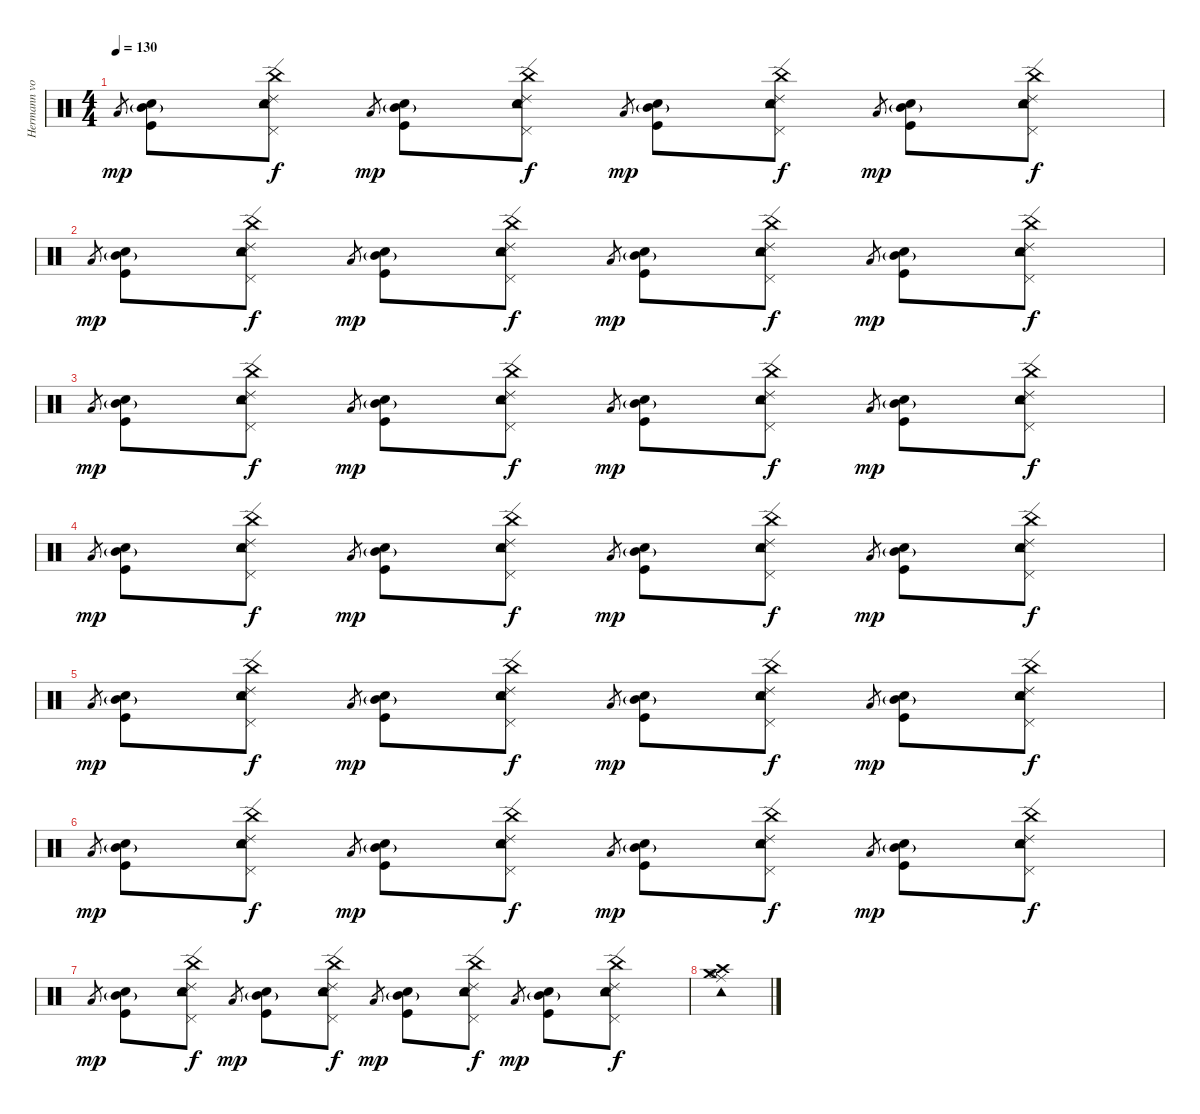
\track ("Hermann von Hinten" "Hermann vo") {instrument percussion}
\staff {score}
\articulation defaults
\ts (4 4)
\tempo 130
\clef neutral
\ks c "Low Tom (hit)".8{gr dy mp}
("Mid Tom (hit)"{g} "Kick (hit)" "Snare (hit) 2").8 ("Tambourine (hit)" "Pedal Hi-Hat (hit)" "China (hit)" "Ride (edge) 2" "Electric Snare (hit)").8{dy f} "Low Tom (hit)".8{gr dy mp} ("Mid Tom (hit)"{g} "Kick (hit)" "Snare (hit) 2").8 ("Tambourine (hit)" "Pedal Hi-Hat (hit)" "China (hit)" "Ride (edge) 2" "Electric Snare (hit)").8{dy f} "Low Tom (hit)".8{gr dy mp} ("Mid Tom (hit)"{g} "Kick (hit)" "Snare (hit) 2").8 ("Tambourine (hit)" "Pedal Hi-Hat (hit)" "China (hit)" "Ride (edge) 2" "Electric Snare (hit)").8{dy f} "Low Tom (hit)".8{gr dy mp} ("Mid Tom (hit)"{g} "Kick (hit)" "Snare (hit) 2").8 ("Tambourine (hit)" "Pedal Hi-Hat (hit)" "China (hit)" "Ride (edge) 2" "Electric Snare (hit)").8{dy f} |
"Low Tom (hit)".8{gr dy mp} ("Mid Tom (hit)"{g} "Kick (hit)" "Snare (hit) 2").8 ("Tambourine (hit)" "Pedal Hi-Hat (hit)" "China (hit)" "Ride (edge) 2" "Electric Snare (hit)").8{dy f} "Low Tom (hit)".8{gr dy mp} ("Mid Tom (hit)"{g} "Kick (hit)" "Snare (hit) 2").8 ("Tambourine (hit)" "Pedal Hi-Hat (hit)" "China (hit)" "Ride (edge) 2" "Electric Snare (hit)").8{dy f} "Low Tom (hit)".8{gr dy mp} ("Mid Tom (hit)"{g} "Kick (hit)" "Snare (hit) 2").8 ("Tambourine (hit)" "Pedal Hi-Hat (hit)" "China (hit)" "Ride (edge) 2" "Electric Snare (hit)").8{dy f} "Low Tom (hit)".8{gr dy mp} ("Mid Tom (hit)"{g} "Kick (hit)" "Snare (hit) 2").8 ("Tambourine (hit)" "Pedal Hi-Hat (hit)" "China (hit)" "Ride (edge) 2" "Electric Snare (hit)").8{dy f} |
"Low Tom (hit)".8{gr dy mp} ("Mid Tom (hit)"{g} "Kick (hit)" "Snare (hit) 2").8 ("Tambourine (hit)" "Pedal Hi-Hat (hit)" "China (hit)" "Ride (edge) 2" "Electric Snare (hit)").8{dy f} "Low Tom (hit)".8{gr dy mp} ("Mid Tom (hit)"{g} "Kick (hit)" "Snare (hit) 2").8 ("Tambourine (hit)" "Pedal Hi-Hat (hit)" "China (hit)" "Ride (edge) 2" "Electric Snare (hit)").8{dy f} "Low Tom (hit)".8{gr dy mp} ("Mid Tom (hit)"{g} "Kick (hit)" "Snare (hit) 2").8 ("Tambourine (hit)" "Pedal Hi-Hat (hit)" "China (hit)" "Ride (edge) 2" "Electric Snare (hit)").8{dy f} "Low Tom (hit)".8{gr dy mp} ("Mid Tom (hit)"{g} "Kick (hit)" "Snare (hit) 2").8 ("Tambourine (hit)" "Pedal Hi-Hat (hit)" "China (hit)" "Ride (edge) 2" "Electric Snare (hit)").8{dy f} |
"Low Tom (hit)".8{gr dy mp} ("Mid Tom (hit)"{g} "Kick (hit)" "Snare (hit) 2").8 ("Tambourine (hit)" "Pedal Hi-Hat (hit)" "China (hit)" "Ride (edge) 2" "Electric Snare (hit)").8{dy f} "Low Tom (hit)".8{gr dy mp} ("Mid Tom (hit)"{g} "Kick (hit)" "Snare (hit) 2").8 ("Tambourine (hit)" "Pedal Hi-Hat (hit)" "China (hit)" "Ride (edge) 2" "Electric Snare (hit)").8{dy f} "Low Tom (hit)".8{gr dy mp} ("Mid Tom (hit)"{g} "Kick (hit)" "Snare (hit) 2").8 ("Tambourine (hit)" "Pedal Hi-Hat (hit)" "China (hit)" "Ride (edge) 2" "Electric Snare (hit)").8{dy f} "Low Tom (hit)".8{gr dy mp} ("Mid Tom (hit)"{g} "Kick (hit)" "Snare (hit) 2").8 ("Tambourine (hit)" "Pedal Hi-Hat (hit)" "China (hit)" "Ride (edge) 2" "Electric Snare (hit)").8{dy f} |
"Low Tom (hit)".8{gr dy mp} ("Mid Tom (hit)"{g} "Kick (hit)" "Snare (hit) 2").8 ("Tambourine (hit)" "Pedal Hi-Hat (hit)" "China (hit)" "Ride (edge) 2" "Electric Snare (hit)").8{dy f} "Low Tom (hit)".8{gr dy mp} ("Mid Tom (hit)"{g} "Kick (hit)" "Snare (hit) 2").8 ("Tambourine (hit)" "Pedal Hi-Hat (hit)" "China (hit)" "Ride (edge) 2" "Electric Snare (hit)").8{dy f} "Low Tom (hit)".8{gr dy mp} ("Mid Tom (hit)"{g} "Kick (hit)" "Snare (hit) 2").8 ("Tambourine (hit)" "Pedal Hi-Hat (hit)" "China (hit)" "Ride (edge) 2" "Electric Snare (hit)").8{dy f} "Low Tom (hit)".8{gr dy mp} ("Mid Tom (hit)"{g} "Kick (hit)" "Snare (hit) 2").8 ("Tambourine (hit)" "Pedal Hi-Hat (hit)" "China (hit)" "Ride (edge) 2" "Electric Snare (hit)").8{dy f} |
"Low Tom (hit)".8{gr dy mp} ("Mid Tom (hit)"{g} "Kick (hit)" "Snare (hit) 2").8 ("Tambourine (hit)" "Pedal Hi-Hat (hit)" "China (hit)" "Ride (edge) 2" "Electric Snare (hit)").8{dy f} "Low Tom (hit)".8{gr dy mp} ("Mid Tom (hit)"{g} "Kick (hit)" "Snare (hit) 2").8 ("Tambourine (hit)" "Pedal Hi-Hat (hit)" "China (hit)" "Ride (edge) 2" "Electric Snare (hit)").8{dy f} "Low Tom (hit)".8{gr dy mp} ("Mid Tom (hit)"{g} "Kick (hit)" "Snare (hit) 2").8 ("Tambourine (hit)" "Pedal Hi-Hat (hit)" "China (hit)" "Ride (edge) 2" "Electric Snare (hit)").8{dy f} "Low Tom (hit)".8{gr dy mp} ("Mid Tom (hit)"{g} "Kick (hit)" "Snare (hit) 2").8 ("Tambourine (hit)" "Pedal Hi-Hat (hit)" "China (hit)" "Ride (edge) 2" "Electric Snare (hit)").8{dy f} |
"Low Tom (hit)".8{gr dy mp} ("Mid Tom (hit)"{g} "Kick (hit)" "Snare (hit) 2").8 ("Tambourine (hit)" "Pedal Hi-Hat (hit)" "China (hit)" "Ride (edge) 2" "Electric Snare (hit)").8{dy f} "Low Tom (hit)".8{gr dy mp} ("Mid Tom (hit)"{g} "Kick (hit)" "Snare (hit) 2").8 ("Tambourine (hit)" "Pedal Hi-Hat (hit)" "China (hit)" "Ride (edge) 2" "Electric Snare (hit)").8{dy f} "Low Tom (hit)".8{gr dy mp} ("Mid Tom (hit)"{g} "Kick (hit)" "Snare (hit) 2").8 ("Tambourine (hit)" "Pedal Hi-Hat (hit)" "China (hit)" "Ride (edge) 2" "Electric Snare (hit)").8{dy f} "Low Tom (hit)".8{gr dy mp} ("Mid Tom (hit)"{g} "Kick (hit)" "Snare (hit) 2").8 ("Tambourine (hit)" "Pedal Hi-Hat (hit)" "China (hit)" "Ride (edge) 2" "Electric Snare (hit)").8{dy f} |
("Ride (middle)" "Tambourine (hit)" "Crash medium (hit)" "Hi-Hat (open)" "Crash high (hit)").1
